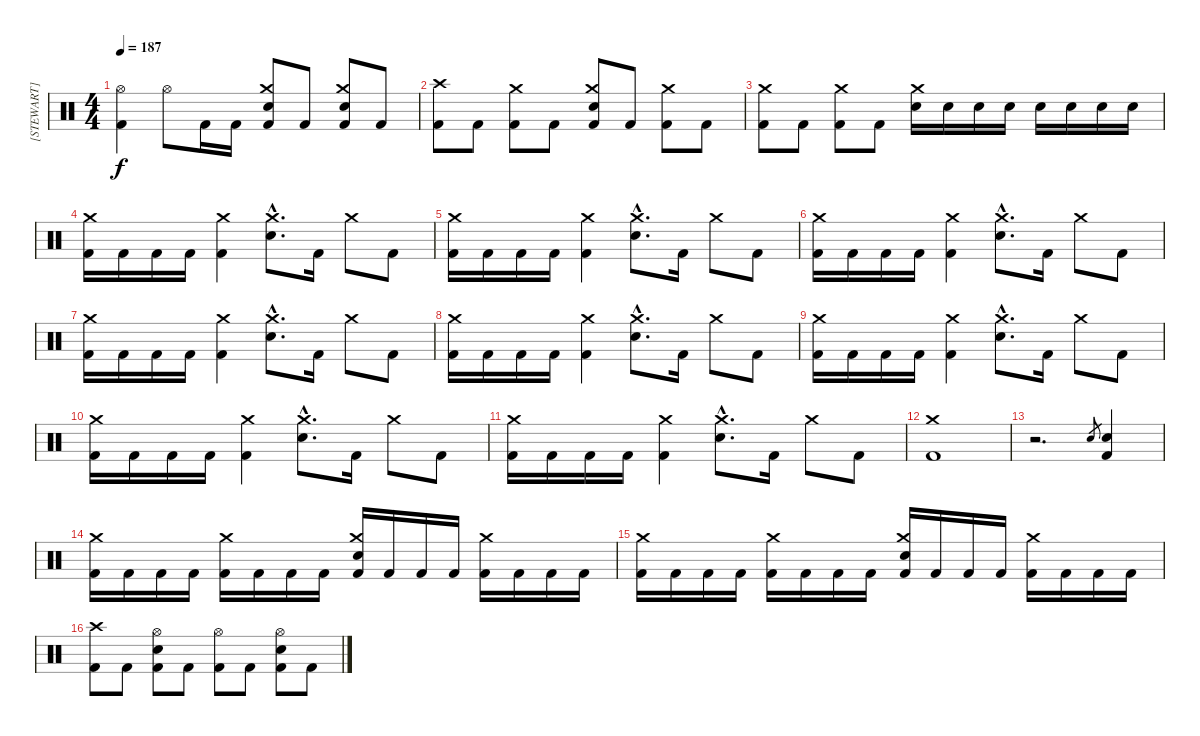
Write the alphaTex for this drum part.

\track ("[STEWART]" "[STEWART]") {instrument percussion}
\staff {score}
\articulation defaults
\ts (4 4)
\tempo 187
\clef neutral
\ks c
("Hi-Hat (open)" "Kick (hit) 2").4{dy f} "Hi-Hat (open)".8 "Kick (hit) 2".16 "Kick (hit) 2".16 ("Crash medium (hit)" "Electric Snare (hit)" "Kick (hit) 2").8 "Kick (hit) 2".8 ("Crash medium (hit)" "Electric Snare (hit)" "Kick (hit) 2").8 "Kick (hit) 2".8 |
("Crash high (hit)" "Kick (hit) 2").8 "Kick (hit) 2".8 ("Crash medium (hit)" "Kick (hit) 2").8 "Kick (hit) 2".8 ("Crash medium (hit)" "Electric Snare (hit)" "Kick (hit) 2").8 "Kick (hit) 2".8 ("Crash medium (hit)" "Kick (hit) 2").8 "Kick (hit) 2".8 |
("Crash medium (hit)" "Kick (hit) 2").8 "Kick (hit) 2".8 ("Crash medium (hit)" "Kick (hit) 2").8 "Kick (hit) 2".8 ("Crash medium (hit)" "Electric Snare (hit)").16 "Electric Snare (hit)".16 "Electric Snare (hit)".16 "Electric Snare (hit)".16 "Electric Snare (hit)".16 "Electric Snare (hit)".16 "Electric Snare (hit)".16 "Electric Snare (hit)".16 |
("Crash medium (hit)" "Kick (hit) 2").16 "Kick (hit) 2".16 "Kick (hit) 2".16 "Kick (hit) 2".16 ("Crash medium (hit)" "Kick (hit) 2").4 ("Crash medium (hit)"{hac} "Electric Snare (hit)"{hac}).8{d} "Kick (hit) 2".16 "Crash medium (hit)".8 "Kick (hit) 2".8 |
("Crash medium (hit)" "Kick (hit) 2").16 "Kick (hit) 2".16 "Kick (hit) 2".16 "Kick (hit) 2".16 ("Crash medium (hit)" "Kick (hit) 2").4 ("Crash medium (hit)"{hac} "Electric Snare (hit)"{hac}).8{d} "Kick (hit) 2".16 "Crash medium (hit)".8 "Kick (hit) 2".8 |
("Crash medium (hit)" "Kick (hit) 2").16 "Kick (hit) 2".16 "Kick (hit) 2".16 "Kick (hit) 2".16 ("Crash medium (hit)" "Kick (hit) 2").4 ("Crash medium (hit)"{hac} "Electric Snare (hit)"{hac}).8{d} "Kick (hit) 2".16 "Crash medium (hit)".8 "Kick (hit) 2".8 |
("Crash medium (hit)" "Kick (hit) 2").16 "Kick (hit) 2".16 "Kick (hit) 2".16 "Kick (hit) 2".16 ("Crash medium (hit)" "Kick (hit) 2").4 ("Crash medium (hit)"{hac} "Electric Snare (hit)"{hac}).8{d} "Kick (hit) 2".16 "Crash medium (hit)".8 "Kick (hit) 2".8 |
("Crash medium (hit)" "Kick (hit) 2").16 "Kick (hit) 2".16 "Kick (hit) 2".16 "Kick (hit) 2".16 ("Crash medium (hit)" "Kick (hit) 2").4 ("Crash medium (hit)"{hac} "Electric Snare (hit)"{hac}).8{d} "Kick (hit) 2".16 "Crash medium (hit)".8 "Kick (hit) 2".8 |
("Crash medium (hit)" "Kick (hit) 2").16 "Kick (hit) 2".16 "Kick (hit) 2".16 "Kick (hit) 2".16 ("Crash medium (hit)" "Kick (hit) 2").4 ("Crash medium (hit)"{hac} "Electric Snare (hit)"{hac}).8{d} "Kick (hit) 2".16 "Crash medium (hit)".8 "Kick (hit) 2".8 |
("Crash medium (hit)" "Kick (hit) 2").16 "Kick (hit) 2".16 "Kick (hit) 2".16 "Kick (hit) 2".16 ("Crash medium (hit)" "Kick (hit) 2").4 ("Crash medium (hit)"{hac} "Electric Snare (hit)"{hac}).8{d} "Kick (hit) 2".16 "Crash medium (hit)".8 "Kick (hit) 2".8 |
("Crash medium (hit)" "Kick (hit) 2").16 "Kick (hit) 2".16 "Kick (hit) 2".16 "Kick (hit) 2".16 ("Crash medium (hit)" "Kick (hit) 2").4 ("Crash medium (hit)"{hac} "Electric Snare (hit)"{hac}).8{d} "Kick (hit) 2".16 "Crash medium (hit)".8 "Kick (hit) 2".8 |
("Crash medium (hit)" "Kick (hit) 2").1 |
r.2{d} "Electric Snare (hit)".8{gr} ("Electric Snare (hit)" "Kick (hit) 2").4 |
("Crash medium (hit)" "Kick (hit) 2").16 "Kick (hit) 2".16 "Kick (hit) 2".16 "Kick (hit) 2".16 ("Crash medium (hit)" "Kick (hit) 2").16 "Kick (hit) 2".16 "Kick (hit) 2".16 "Kick (hit) 2".16 ("Crash medium (hit)" "Electric Snare (hit)" "Kick (hit) 2").16 "Kick (hit) 2".16 "Kick (hit) 2".16 "Kick (hit) 2".16 ("Crash medium (hit)" "Kick (hit) 2").16 "Kick (hit) 2".16 "Kick (hit) 2".16 "Kick (hit) 2".16 |
("Crash medium (hit)" "Kick (hit) 2").16 "Kick (hit) 2".16 "Kick (hit) 2".16 "Kick (hit) 2".16 ("Crash medium (hit)" "Kick (hit) 2").16 "Kick (hit) 2".16 "Kick (hit) 2".16 "Kick (hit) 2".16 ("Crash medium (hit)" "Electric Snare (hit)" "Kick (hit) 2").16 "Kick (hit) 2".16 "Kick (hit) 2".16 "Kick (hit) 2".16 ("Crash medium (hit)" "Kick (hit) 2").16 "Kick (hit) 2".16 "Kick (hit) 2".16 "Kick (hit) 2".16 |
("Crash high (hit)" "Kick (hit) 2").8 "Kick (hit) 2".8 ("Hi-Hat (open)" "Electric Snare (hit)" "Kick (hit) 2").8 "Kick (hit) 2".8 ("Hi-Hat (open)" "Kick (hit) 2").8 "Kick (hit) 2".8 ("Hi-Hat (open)" "Electric Snare (hit)" "Kick (hit) 2").8 "Kick (hit) 2".8
